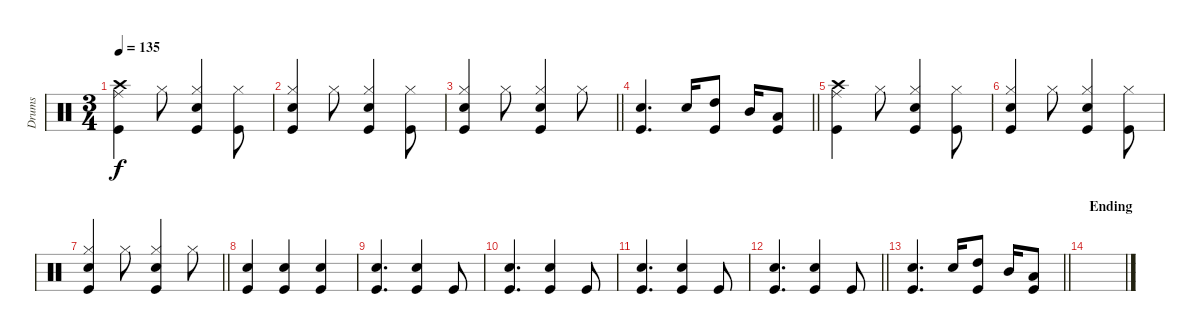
\track ("Drums" "Drums") {instrument percussion}
\staff {score}
\articulation defaults
\ts (3 4)
\tempo 135
\clef neutral
\ks c
("Ride (middle)" "Crash high (hit)" "Kick (hit)").4{dy f} "Hi-Hat (closed)".8 ("Hi-Hat (closed)" "Kick (hit)" "Snare (hit) 2").4 ("Hi-Hat (closed)" "Kick (hit)").8 |
("Hi-Hat (closed)" "Snare (hit) 2" "Kick (hit)").4 "Hi-Hat (closed)".8 ("Hi-Hat (closed)" "Snare (hit) 2" "Kick (hit)").4 ("Hi-Hat (closed)" "Kick (hit)").8 |
\barLineRight lightlight
("Hi-Hat (closed)" "Snare (hit) 2" "Kick (hit)").4 "Hi-Hat (closed)".8 ("Hi-Hat (closed)" "Snare (hit) 2" "Kick (hit)").4 "Hi-Hat (closed)".8 |
\barLineRight lightlight
("Snare (hit) 2" "Kick (hit)").4{d} "Electric Snare (hit)".16 ("High Tom (hit)" "Kick (hit)").8 "Mid Tom (hit)".16 ("Low Tom (hit)" "Kick (hit)").8 |
("Ride (middle)" "Crash high (hit)" "Kick (hit)").4 "Hi-Hat (closed)".8 ("Hi-Hat (closed)" "Kick (hit)" "Snare (hit) 2").4 ("Hi-Hat (closed)" "Kick (hit)").8 |
("Hi-Hat (closed)" "Snare (hit) 2" "Kick (hit)").4 "Hi-Hat (closed)".8 ("Hi-Hat (closed)" "Snare (hit) 2" "Kick (hit)").4 ("Hi-Hat (closed)" "Kick (hit)").8 |
\barLineRight lightlight
("Hi-Hat (closed)" "Snare (hit) 2" "Kick (hit)").4 "Hi-Hat (closed)".8 ("Hi-Hat (closed)" "Snare (hit) 2" "Kick (hit)").4 "Hi-Hat (closed)".8 |
("Snare (hit) 2" "Kick (hit)").4 ("Snare (hit) 2" "Kick (hit)").4 ("Snare (hit) 2" "Kick (hit)").4 |
("Snare (hit) 2" "Kick (hit)").4{d} ("Snare (hit) 2" "Kick (hit)").4 "Kick (hit)".8 |
("Snare (hit) 2" "Kick (hit)").4{d} ("Snare (hit) 2" "Kick (hit)").4 "Kick (hit)".8 |
("Snare (hit) 2" "Kick (hit)").4{d} ("Snare (hit) 2" "Kick (hit)").4 "Kick (hit)".8 |
\barLineRight lightlight
("Snare (hit) 2" "Kick (hit)").4{d} ("Snare (hit) 2" "Kick (hit)").4 "Kick (hit)".8 |
\barLineRight lightlight
("Snare (hit) 2" "Kick (hit)").4{d} "Electric Snare (hit)".16 ("High Tom (hit)" "Kick (hit)").8 "Mid Tom (hit)".16 ("Low Tom (hit)" "Kick (hit)").8 |
\section ("" "Ending")
